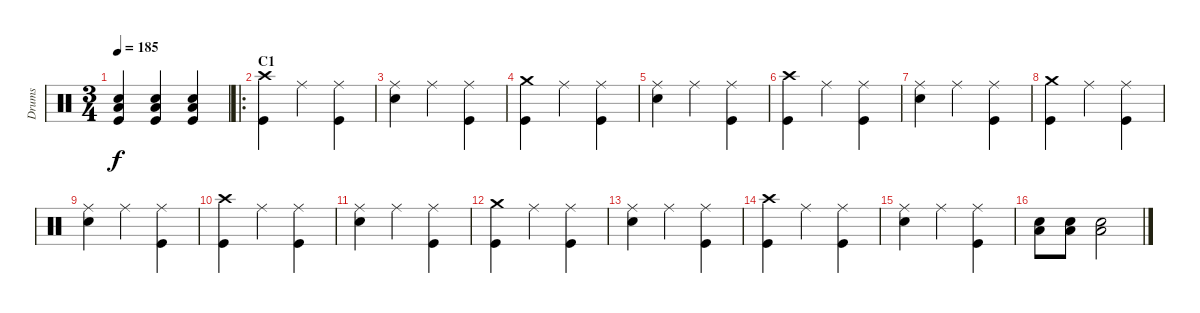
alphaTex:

\track ("Drums" "Drums") {instrument percussion}
\staff {score}
\articulation defaults
\ts (3 4)
\tempo 185
\clef neutral
\ks c
("Low Floor Tom (hit)" "Snare (hit) 2" "Kick (hit)").4{dy f} ("Low Floor Tom (hit)" "Snare (hit) 2" "Kick (hit)").4 ("Low Floor Tom (hit)" "Snare (hit) 2" "Kick (hit)").4 |
\ro
\section ("" "C1")
("Crash high (hit)" "Kick (hit)").4 "Ride (middle)".4 ("Ride (middle)" "Kick (hit)").4 |
("Ride (middle)" "Snare (hit) 2").4 "Ride (middle)".4 ("Ride (middle)" "Kick (hit)").4 |
("Crash medium (hit)" "Kick (hit)").4 "Ride (middle)".4 ("Ride (middle)" "Kick (hit)").4 |
("Ride (middle)" "Snare (hit) 2").4 "Ride (middle)".4 ("Ride (middle)" "Kick (hit)").4 |
("Crash high (hit)" "Kick (hit)").4 "Ride (middle)".4 ("Ride (middle)" "Kick (hit)").4 |
("Ride (middle)" "Snare (hit) 2").4 "Ride (middle)".4 ("Ride (middle)" "Kick (hit)").4 |
("Crash medium (hit)" "Kick (hit)").4 "Ride (middle)".4 ("Ride (middle)" "Kick (hit)").4 |
("Ride (middle)" "Snare (hit) 2").4 "Ride (middle)".4 ("Ride (middle)" "Kick (hit)").4 |
("Crash high (hit)" "Kick (hit)").4 "Ride (middle)".4 ("Ride (middle)" "Kick (hit)").4 |
("Ride (middle)" "Snare (hit) 2").4 "Ride (middle)".4 ("Ride (middle)" "Kick (hit)").4 |
("Crash medium (hit)" "Kick (hit)").4 "Ride (middle)".4 ("Ride (middle)" "Kick (hit)").4 |
("Ride (middle)" "Snare (hit) 2").4 "Ride (middle)".4 ("Ride (middle)" "Kick (hit)").4 |
("Crash high (hit)" "Kick (hit)").4 "Ride (middle)".4 ("Ride (middle)" "Kick (hit)").4 |
("Ride (middle)" "Snare (hit) 2").4 "Ride (middle)".4 ("Ride (middle)" "Kick (hit)").4 |
("Low Floor Tom (hit)" "Snare (hit) 2").8 ("Low Floor Tom (hit)" "Snare (hit) 2").8 ("Low Floor Tom (hit)" "Snare (hit) 2").2
